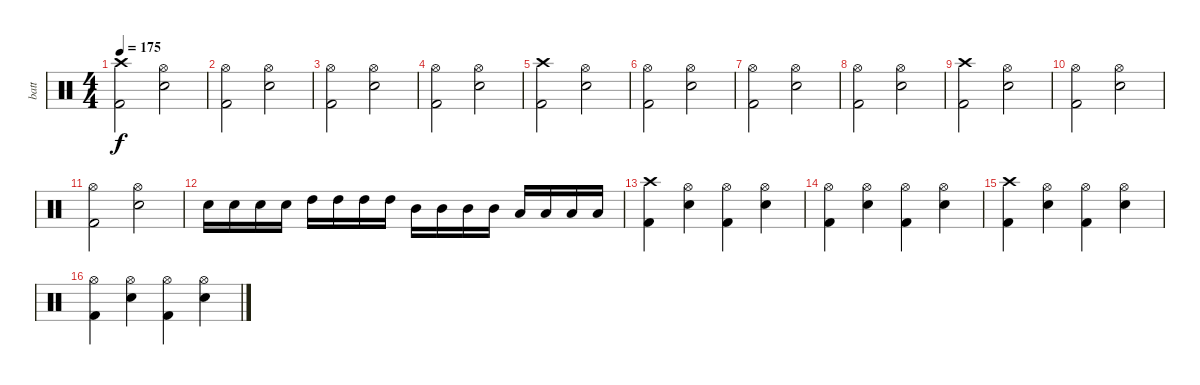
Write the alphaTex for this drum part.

\track ("batt" "batt") {instrument percussion}
\staff {score}
\articulation defaults
\ts (4 4)
\tempo 175
\clef neutral
\ks c
("Crash high (hit)" "Kick (hit) 2").2{dy f} ("Hi-Hat (open)" "Electric Snare (hit)").2 |
("Hi-Hat (open)" "Kick (hit) 2").2 ("Hi-Hat (open)" "Electric Snare (hit)").2 |
("Hi-Hat (open)" "Kick (hit) 2").2 ("Hi-Hat (open)" "Electric Snare (hit)").2 |
("Hi-Hat (open)" "Kick (hit) 2").2 ("Hi-Hat (open)" "Electric Snare (hit)").2 |
("Crash high (hit)" "Kick (hit) 2").2 ("Hi-Hat (open)" "Electric Snare (hit)").2 |
("Hi-Hat (open)" "Kick (hit) 2").2 ("Hi-Hat (open)" "Electric Snare (hit)").2 |
("Hi-Hat (open)" "Kick (hit) 2").2 ("Hi-Hat (open)" "Electric Snare (hit)").2 |
("Hi-Hat (open)" "Kick (hit) 2").2 ("Hi-Hat (open)" "Electric Snare (hit)").2 |
("Crash high (hit)" "Kick (hit) 2").2 ("Hi-Hat (open)" "Electric Snare (hit)").2 |
("Hi-Hat (open)" "Kick (hit) 2").2 ("Hi-Hat (open)" "Electric Snare (hit)").2 |
("Hi-Hat (open)" "Kick (hit) 2").2 ("Hi-Hat (open)" "Electric Snare (hit)").2 |
"Electric Snare (hit)".16 "Electric Snare (hit)".16 "Electric Snare (hit)".16 "Electric Snare (hit)".16 "High Tom (hit)".16 "High Tom (hit)".16 "High Tom (hit)".16 "High Tom (hit)".16 "Mid Tom (hit)".16 "Mid Tom (hit)".16 "Mid Tom (hit)".16 "Mid Tom (hit)".16 "Low Tom (hit)".16 "Low Tom (hit)".16 "Low Tom (hit)".16 "Low Tom (hit)".16 |
("Crash high (hit)" "Kick (hit) 2").4 ("Hi-Hat (open)" "Electric Snare (hit)").4 ("Hi-Hat (open)" "Kick (hit) 2").4 ("Hi-Hat (open)" "Electric Snare (hit)").4 |
("Hi-Hat (open)" "Kick (hit) 2").4 ("Hi-Hat (open)" "Electric Snare (hit)").4 ("Hi-Hat (open)" "Kick (hit) 2").4 ("Hi-Hat (open)" "Electric Snare (hit)").4 |
("Crash high (hit)" "Kick (hit) 2").4 ("Hi-Hat (open)" "Electric Snare (hit)").4 ("Hi-Hat (open)" "Kick (hit) 2").4 ("Hi-Hat (open)" "Electric Snare (hit)").4 |
("Hi-Hat (open)" "Kick (hit) 2").4 ("Hi-Hat (open)" "Electric Snare (hit)").4 ("Hi-Hat (open)" "Kick (hit) 2").4 ("Hi-Hat (open)" "Electric Snare (hit)").4
